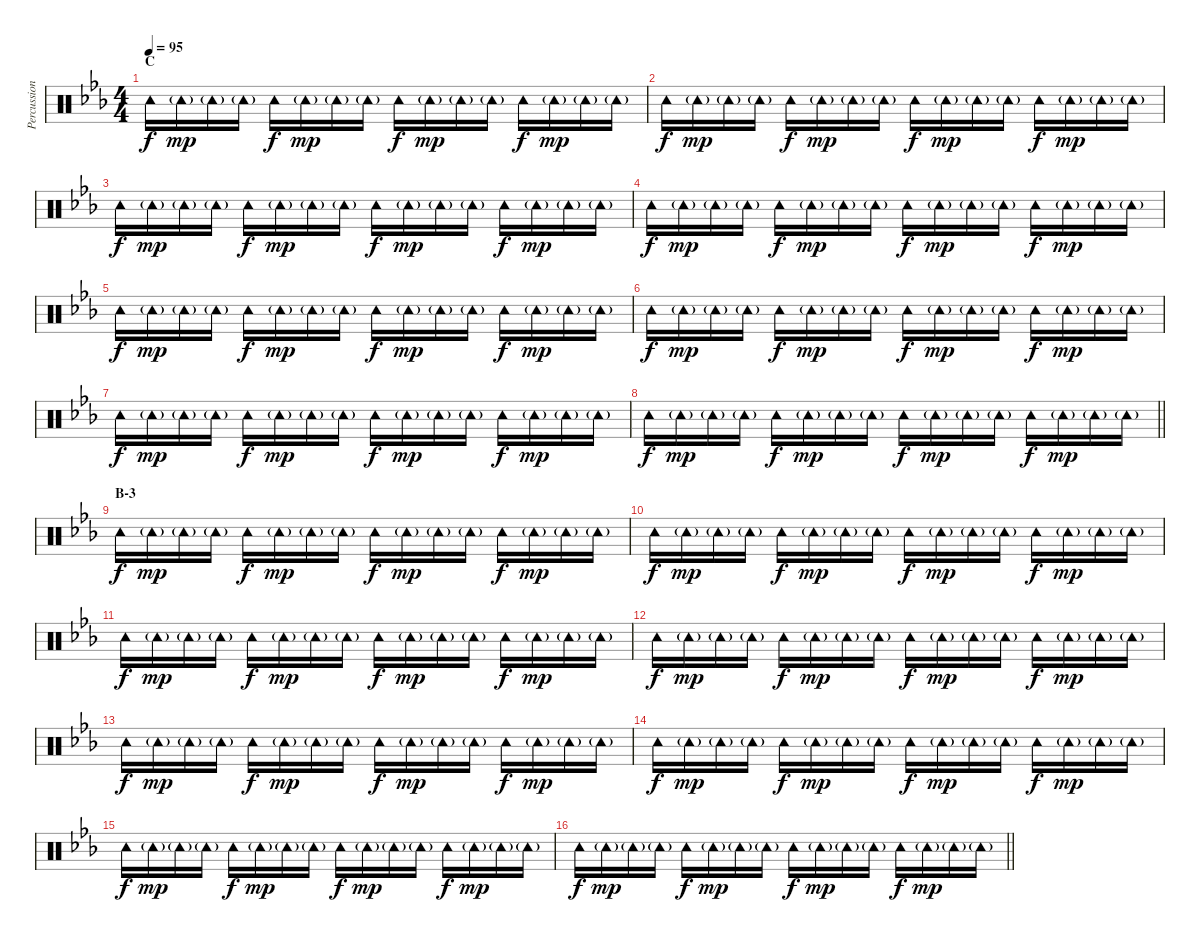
\track ("Percussion" "Percussion") {instrument percussion}
\staff {score}
\articulation defaults
\ts (4 4)
\section ("" "C")
\tempo 95
\clef neutral
\ks cminor "Tambourine (hit)".16{dy f} "Tambourine (hit)"{g}.16{dy mp} "Tambourine (hit)"{g}.16 "Tambourine (hit)"{g}.16 "Tambourine (hit)".16{dy f} "Tambourine (hit)"{g}.16{dy mp} "Tambourine (hit)"{g}.16 "Tambourine (hit)"{g}.16 "Tambourine (hit)".16{dy f} "Tambourine (hit)"{g}.16{dy mp} "Tambourine (hit)"{g}.16 "Tambourine (hit)"{g}.16 "Tambourine (hit)".16{dy f} "Tambourine (hit)"{g}.16{dy mp} "Tambourine (hit)"{g}.16 "Tambourine (hit)"{g}.16
|
"Tambourine (hit)".16{dy f} "Tambourine (hit)"{g}.16{dy mp} "Tambourine (hit)"{g}.16 "Tambourine (hit)"{g}.16 "Tambourine (hit)".16{dy f} "Tambourine (hit)"{g}.16{dy mp} "Tambourine (hit)"{g}.16 "Tambourine (hit)"{g}.16 "Tambourine (hit)".16{dy f} "Tambourine (hit)"{g}.16{dy mp} "Tambourine (hit)"{g}.16 "Tambourine (hit)"{g}.16 "Tambourine (hit)".16{dy f} "Tambourine (hit)"{g}.16{dy mp} "Tambourine (hit)"{g}.16 "Tambourine (hit)"{g}.16 |
"Tambourine (hit)".16{dy f} "Tambourine (hit)"{g}.16{dy mp} "Tambourine (hit)"{g}.16 "Tambourine (hit)"{g}.16 "Tambourine (hit)".16{dy f} "Tambourine (hit)"{g}.16{dy mp} "Tambourine (hit)"{g}.16 "Tambourine (hit)"{g}.16 "Tambourine (hit)".16{dy f} "Tambourine (hit)"{g}.16{dy mp} "Tambourine (hit)"{g}.16 "Tambourine (hit)"{g}.16 "Tambourine (hit)".16{dy f} "Tambourine (hit)"{g}.16{dy mp} "Tambourine (hit)"{g}.16 "Tambourine (hit)"{g}.16 |
"Tambourine (hit)".16{dy f} "Tambourine (hit)"{g}.16{dy mp} "Tambourine (hit)"{g}.16 "Tambourine (hit)"{g}.16 "Tambourine (hit)".16{dy f} "Tambourine (hit)"{g}.16{dy mp} "Tambourine (hit)"{g}.16 "Tambourine (hit)"{g}.16 "Tambourine (hit)".16{dy f} "Tambourine (hit)"{g}.16{dy mp} "Tambourine (hit)"{g}.16 "Tambourine (hit)"{g}.16 "Tambourine (hit)".16{dy f} "Tambourine (hit)"{g}.16{dy mp} "Tambourine (hit)"{g}.16 "Tambourine (hit)"{g}.16 |
"Tambourine (hit)".16{dy f} "Tambourine (hit)"{g}.16{dy mp} "Tambourine (hit)"{g}.16 "Tambourine (hit)"{g}.16 "Tambourine (hit)".16{dy f} "Tambourine (hit)"{g}.16{dy mp} "Tambourine (hit)"{g}.16 "Tambourine (hit)"{g}.16 "Tambourine (hit)".16{dy f} "Tambourine (hit)"{g}.16{dy mp} "Tambourine (hit)"{g}.16 "Tambourine (hit)"{g}.16 "Tambourine (hit)".16{dy f} "Tambourine (hit)"{g}.16{dy mp} "Tambourine (hit)"{g}.16 "Tambourine (hit)"{g}.16 |
"Tambourine (hit)".16{dy f} "Tambourine (hit)"{g}.16{dy mp} "Tambourine (hit)"{g}.16 "Tambourine (hit)"{g}.16 "Tambourine (hit)".16{dy f} "Tambourine (hit)"{g}.16{dy mp} "Tambourine (hit)"{g}.16 "Tambourine (hit)"{g}.16 "Tambourine (hit)".16{dy f} "Tambourine (hit)"{g}.16{dy mp} "Tambourine (hit)"{g}.16 "Tambourine (hit)"{g}.16 "Tambourine (hit)".16{dy f} "Tambourine (hit)"{g}.16{dy mp} "Tambourine (hit)"{g}.16 "Tambourine (hit)"{g}.16 |
"Tambourine (hit)".16{dy f} "Tambourine (hit)"{g}.16{dy mp} "Tambourine (hit)"{g}.16 "Tambourine (hit)"{g}.16 "Tambourine (hit)".16{dy f} "Tambourine (hit)"{g}.16{dy mp} "Tambourine (hit)"{g}.16 "Tambourine (hit)"{g}.16 "Tambourine (hit)".16{dy f} "Tambourine (hit)"{g}.16{dy mp} "Tambourine (hit)"{g}.16 "Tambourine (hit)"{g}.16 "Tambourine (hit)".16{dy f} "Tambourine (hit)"{g}.16{dy mp} "Tambourine (hit)"{g}.16 "Tambourine (hit)"{g}.16 |
\barLineRight lightlight "Tambourine (hit)".16{dy f} "Tambourine (hit)"{g}.16{dy mp} "Tambourine (hit)"{g}.16 "Tambourine (hit)"{g}.16 "Tambourine (hit)".16{dy f} "Tambourine (hit)"{g}.16{dy mp} "Tambourine (hit)"{g}.16 "Tambourine (hit)"{g}.16 "Tambourine (hit)".16{dy f} "Tambourine (hit)"{g}.16{dy mp} "Tambourine (hit)"{g}.16 "Tambourine (hit)"{g}.16 "Tambourine (hit)".16{dy f} "Tambourine (hit)"{g}.16{dy mp} "Tambourine (hit)"{g}.16 "Tambourine (hit)"{g}.16
|
\section ("" "B-3")
"Tambourine (hit)".16{dy f} "Tambourine (hit)"{g}.16{dy mp} "Tambourine (hit)"{g}.16 "Tambourine (hit)"{g}.16 "Tambourine (hit)".16{dy f} "Tambourine (hit)"{g}.16{dy mp} "Tambourine (hit)"{g}.16 "Tambourine (hit)"{g}.16 "Tambourine (hit)".16{dy f} "Tambourine (hit)"{g}.16{dy mp} "Tambourine (hit)"{g}.16 "Tambourine (hit)"{g}.16 "Tambourine (hit)".16{dy f} "Tambourine (hit)"{g}.16{dy mp} "Tambourine (hit)"{g}.16 "Tambourine (hit)"{g}.16 |
"Tambourine (hit)".16{dy f} "Tambourine (hit)"{g}.16{dy mp} "Tambourine (hit)"{g}.16 "Tambourine (hit)"{g}.16 "Tambourine (hit)".16{dy f} "Tambourine (hit)"{g}.16{dy mp} "Tambourine (hit)"{g}.16 "Tambourine (hit)"{g}.16 "Tambourine (hit)".16{dy f} "Tambourine (hit)"{g}.16{dy mp} "Tambourine (hit)"{g}.16 "Tambourine (hit)"{g}.16 "Tambourine (hit)".16{dy f} "Tambourine (hit)"{g}.16{dy mp} "Tambourine (hit)"{g}.16 "Tambourine (hit)"{g}.16 |
"Tambourine (hit)".16{dy f} "Tambourine (hit)"{g}.16{dy mp} "Tambourine (hit)"{g}.16 "Tambourine (hit)"{g}.16 "Tambourine (hit)".16{dy f} "Tambourine (hit)"{g}.16{dy mp} "Tambourine (hit)"{g}.16 "Tambourine (hit)"{g}.16 "Tambourine (hit)".16{dy f} "Tambourine (hit)"{g}.16{dy mp} "Tambourine (hit)"{g}.16 "Tambourine (hit)"{g}.16 "Tambourine (hit)".16{dy f} "Tambourine (hit)"{g}.16{dy mp} "Tambourine (hit)"{g}.16 "Tambourine (hit)"{g}.16 |
"Tambourine (hit)".16{dy f} "Tambourine (hit)"{g}.16{dy mp} "Tambourine (hit)"{g}.16 "Tambourine (hit)"{g}.16 "Tambourine (hit)".16{dy f} "Tambourine (hit)"{g}.16{dy mp} "Tambourine (hit)"{g}.16 "Tambourine (hit)"{g}.16 "Tambourine (hit)".16{dy f} "Tambourine (hit)"{g}.16{dy mp} "Tambourine (hit)"{g}.16 "Tambourine (hit)"{g}.16 "Tambourine (hit)".16{dy f} "Tambourine (hit)"{g}.16{dy mp} "Tambourine (hit)"{g}.16 "Tambourine (hit)"{g}.16 |
"Tambourine (hit)".16{dy f} "Tambourine (hit)"{g}.16{dy mp} "Tambourine (hit)"{g}.16 "Tambourine (hit)"{g}.16 "Tambourine (hit)".16{dy f} "Tambourine (hit)"{g}.16{dy mp} "Tambourine (hit)"{g}.16 "Tambourine (hit)"{g}.16 "Tambourine (hit)".16{dy f} "Tambourine (hit)"{g}.16{dy mp} "Tambourine (hit)"{g}.16 "Tambourine (hit)"{g}.16 "Tambourine (hit)".16{dy f} "Tambourine (hit)"{g}.16{dy mp} "Tambourine (hit)"{g}.16 "Tambourine (hit)"{g}.16 |
"Tambourine (hit)".16{dy f} "Tambourine (hit)"{g}.16{dy mp} "Tambourine (hit)"{g}.16 "Tambourine (hit)"{g}.16 "Tambourine (hit)".16{dy f} "Tambourine (hit)"{g}.16{dy mp} "Tambourine (hit)"{g}.16 "Tambourine (hit)"{g}.16 "Tambourine (hit)".16{dy f} "Tambourine (hit)"{g}.16{dy mp} "Tambourine (hit)"{g}.16 "Tambourine (hit)"{g}.16 "Tambourine (hit)".16{dy f} "Tambourine (hit)"{g}.16{dy mp} "Tambourine (hit)"{g}.16 "Tambourine (hit)"{g}.16 |
"Tambourine (hit)".16{dy f} "Tambourine (hit)"{g}.16{dy mp} "Tambourine (hit)"{g}.16 "Tambourine (hit)"{g}.16 "Tambourine (hit)".16{dy f} "Tambourine (hit)"{g}.16{dy mp} "Tambourine (hit)"{g}.16 "Tambourine (hit)"{g}.16 "Tambourine (hit)".16{dy f} "Tambourine (hit)"{g}.16{dy mp} "Tambourine (hit)"{g}.16 "Tambourine (hit)"{g}.16 "Tambourine (hit)".16{dy f} "Tambourine (hit)"{g}.16{dy mp} "Tambourine (hit)"{g}.16 "Tambourine (hit)"{g}.16 |
\barLineRight lightlight "Tambourine (hit)".16{dy f} "Tambourine (hit)"{g}.16{dy mp} "Tambourine (hit)"{g}.16 "Tambourine (hit)"{g}.16 "Tambourine (hit)".16{dy f} "Tambourine (hit)"{g}.16{dy mp} "Tambourine (hit)"{g}.16 "Tambourine (hit)"{g}.16 "Tambourine (hit)".16{dy f} "Tambourine (hit)"{g}.16{dy mp} "Tambourine (hit)"{g}.16 "Tambourine (hit)"{g}.16 "Tambourine (hit)".16{dy f} "Tambourine (hit)"{g}.16{dy mp} "Tambourine (hit)"{g}.16 "Tambourine (hit)"{g}.16
